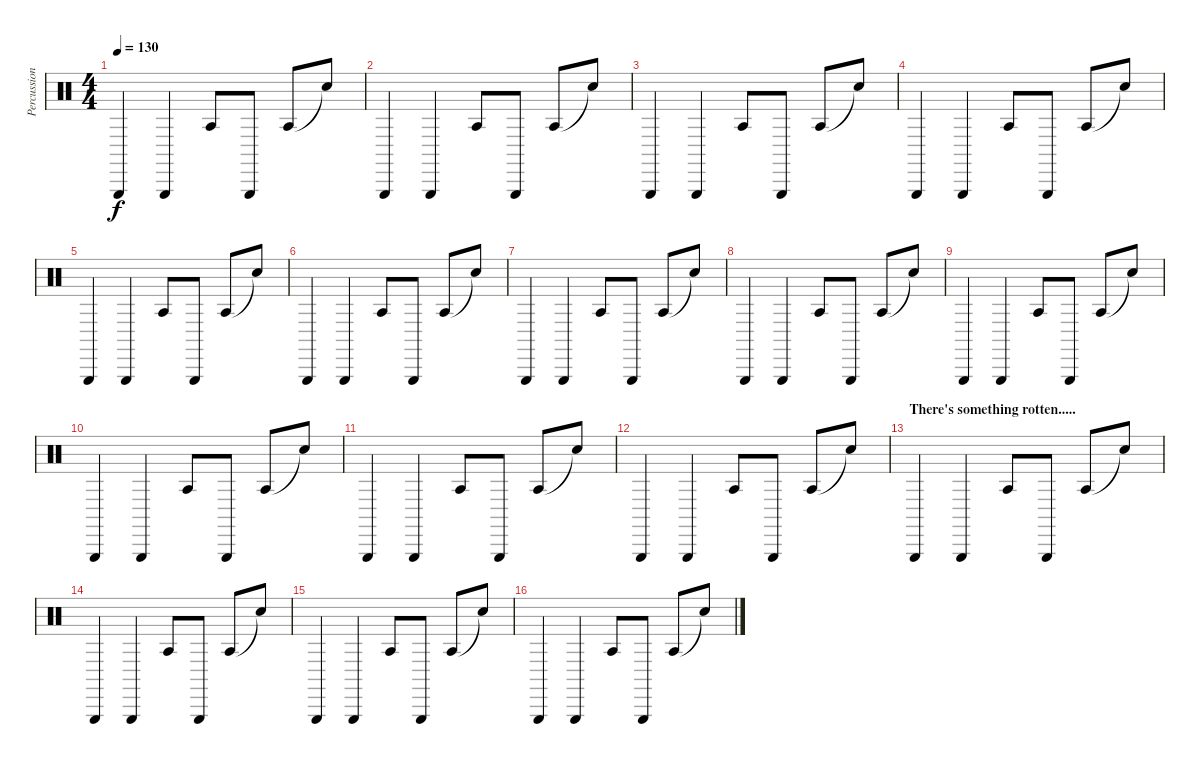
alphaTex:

\track ("Percussion" "Percussion") {instrument percussion}
\staff {score}
\articulation defaults
\ts (4 4)
\tempo 130
\clef neutral
\ks c "Triangle (hit)".4{dy f} "Triangle (hit)".4 "Agogo tow (hit)".8 "Triangle (hit)".8 "Agogo tow (hit)".8 "Snare (hit)"{t}.8
|
"Triangle (hit)".4 "Triangle (hit)".4 "Agogo tow (hit)".8 "Triangle (hit)".8 "Agogo tow (hit)".8 "Snare (hit)"{t}.8 |
"Triangle (hit)".4 "Triangle (hit)".4 "Agogo tow (hit)".8 "Triangle (hit)".8 "Agogo tow (hit)".8 "Snare (hit)"{t}.8 |
"Triangle (hit)".4 "Triangle (hit)".4 "Agogo tow (hit)".8 "Triangle (hit)".8 "Agogo tow (hit)".8 "Snare (hit)"{t}.8 |
"Triangle (hit)".4 "Triangle (hit)".4 "Agogo tow (hit)".8 "Triangle (hit)".8 "Agogo tow (hit)".8 "Snare (hit)"{t}.8 |
"Triangle (hit)".4 "Triangle (hit)".4 "Agogo tow (hit)".8 "Triangle (hit)".8 "Agogo tow (hit)".8 "Snare (hit)"{t}.8 |
"Triangle (hit)".4 "Triangle (hit)".4 "Agogo tow (hit)".8 "Triangle (hit)".8 "Agogo tow (hit)".8 "Snare (hit)"{t}.8 |
"Triangle (hit)".4 "Triangle (hit)".4 "Agogo tow (hit)".8 "Triangle (hit)".8 "Agogo tow (hit)".8 "Snare (hit)"{t}.8 |
"Triangle (hit)".4 "Triangle (hit)".4 "Agogo tow (hit)".8 "Triangle (hit)".8 "Agogo tow (hit)".8 "Snare (hit)"{t}.8 |
"Triangle (hit)".4 "Triangle (hit)".4 "Agogo tow (hit)".8 "Triangle (hit)".8 "Agogo tow (hit)".8 "Snare (hit)"{t}.8 |
"Triangle (hit)".4 "Triangle (hit)".4 "Agogo tow (hit)".8 "Triangle (hit)".8 "Agogo tow (hit)".8 "Snare (hit)"{t}.8 |
"Triangle (hit)".4 "Triangle (hit)".4 "Agogo tow (hit)".8 "Triangle (hit)".8 "Agogo tow (hit)".8 "Snare (hit)"{t}.8 |
\section ("" "There's something rotten.....")
"Triangle (hit)".4 "Triangle (hit)".4 "Agogo tow (hit)".8 "Triangle (hit)".8 "Agogo tow (hit)".8 "Snare (hit)"{t}.8 |
"Triangle (hit)".4 "Triangle (hit)".4 "Agogo tow (hit)".8 "Triangle (hit)".8 "Agogo tow (hit)".8 "Snare (hit)"{t}.8 |
"Triangle (hit)".4 "Triangle (hit)".4 "Agogo tow (hit)".8 "Triangle (hit)".8 "Agogo tow (hit)".8 "Snare (hit)"{t}.8 |
"Triangle (hit)".4 "Triangle (hit)".4 "Agogo tow (hit)".8 "Triangle (hit)".8 "Agogo tow (hit)".8 "Snare (hit)"{t}.8
